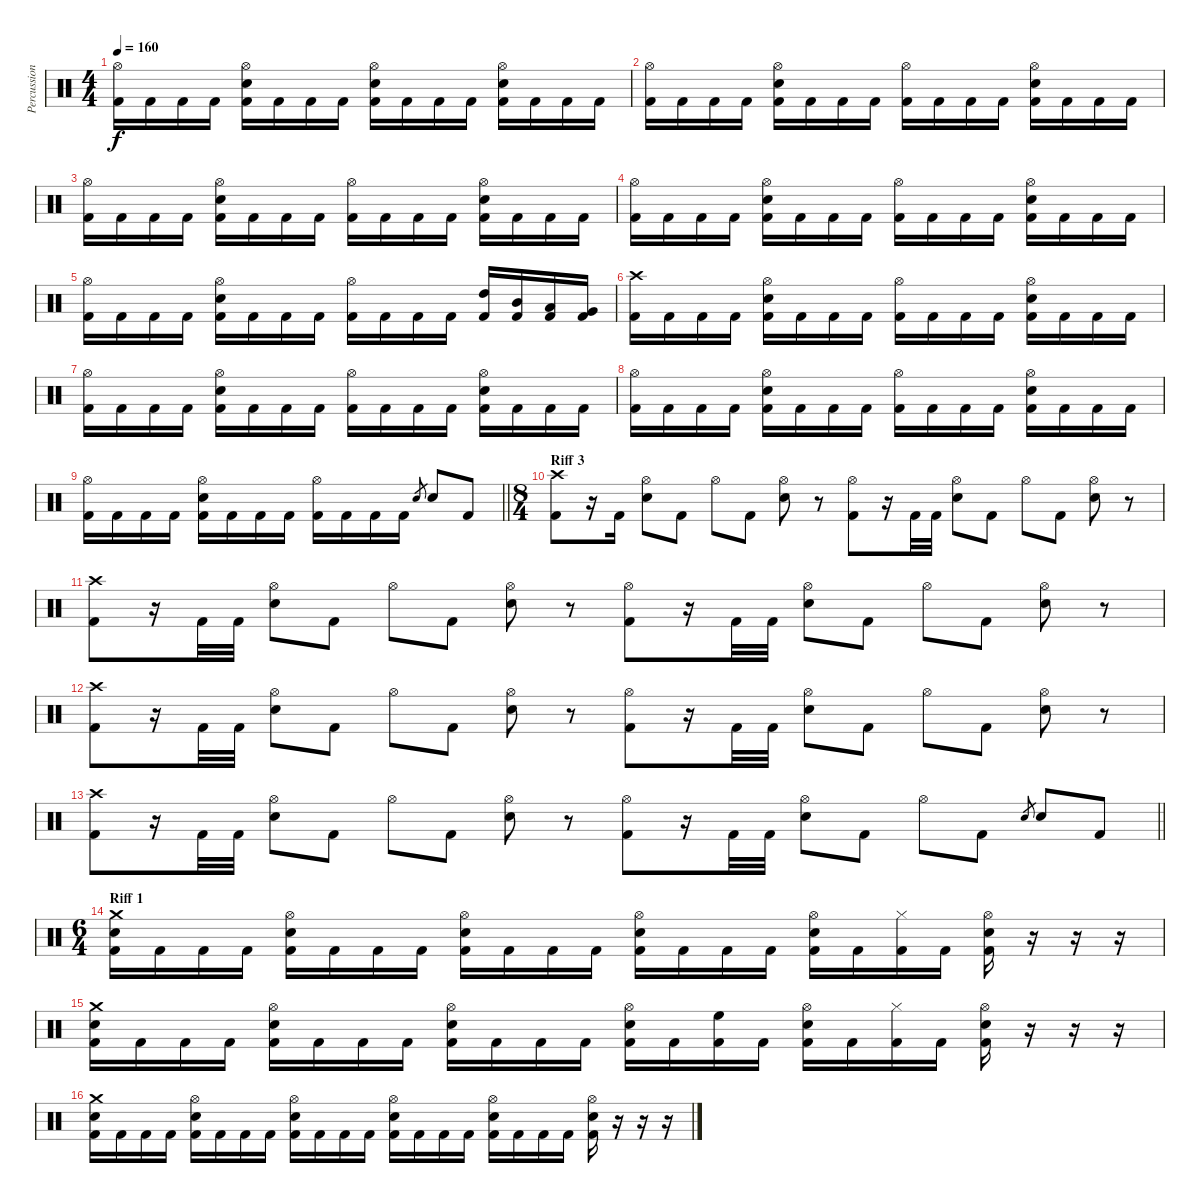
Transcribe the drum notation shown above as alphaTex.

\track ("Percussion" "Percussion") {instrument percussion}
\staff {score}
\articulation defaults
\ts (4 4)
\tempo 160
\clef neutral
\ks c
("Hi-Hat (open)" "Kick (hit) 2").16{dy f} "Kick (hit) 2".16 "Kick (hit) 2".16 "Kick (hit) 2".16 ("Hi-Hat (open)" "Snare (hit) 2" "Kick (hit) 2").16 "Kick (hit) 2".16 "Kick (hit) 2".16 "Kick (hit) 2".16 ("Hi-Hat (open)" "Snare (hit) 2" "Kick (hit) 2").16 "Kick (hit) 2".16 "Kick (hit) 2".16 "Kick (hit) 2".16 ("Hi-Hat (open)" "Snare (hit) 2" "Kick (hit) 2").16 "Kick (hit) 2".16 "Kick (hit) 2".16 "Kick (hit) 2".16 |
("Hi-Hat (open)" "Kick (hit) 2").16 "Kick (hit) 2".16 "Kick (hit) 2".16 "Kick (hit) 2".16 ("Hi-Hat (open)" "Snare (hit) 2" "Kick (hit) 2").16 "Kick (hit) 2".16 "Kick (hit) 2".16 "Kick (hit) 2".16 ("Hi-Hat (open)" "Kick (hit) 2").16 "Kick (hit) 2".16 "Kick (hit) 2".16 "Kick (hit) 2".16 ("Hi-Hat (open)" "Snare (hit) 2" "Kick (hit) 2").16 "Kick (hit) 2".16 "Kick (hit) 2".16 "Kick (hit) 2".16 |
("Hi-Hat (open)" "Kick (hit) 2").16 "Kick (hit) 2".16 "Kick (hit) 2".16 "Kick (hit) 2".16 ("Hi-Hat (open)" "Snare (hit) 2" "Kick (hit) 2").16 "Kick (hit) 2".16 "Kick (hit) 2".16 "Kick (hit) 2".16 ("Hi-Hat (open)" "Kick (hit) 2").16 "Kick (hit) 2".16 "Kick (hit) 2".16 "Kick (hit) 2".16 ("Hi-Hat (open)" "Snare (hit) 2" "Kick (hit) 2").16 "Kick (hit) 2".16 "Kick (hit) 2".16 "Kick (hit) 2".16 |
("Hi-Hat (open)" "Kick (hit) 2").16 "Kick (hit) 2".16 "Kick (hit) 2".16 "Kick (hit) 2".16 ("Hi-Hat (open)" "Snare (hit) 2" "Kick (hit) 2").16 "Kick (hit) 2".16 "Kick (hit) 2".16 "Kick (hit) 2".16 ("Hi-Hat (open)" "Kick (hit) 2").16 "Kick (hit) 2".16 "Kick (hit) 2".16 "Kick (hit) 2".16 ("Hi-Hat (open)" "Snare (hit) 2" "Kick (hit) 2").16 "Kick (hit) 2".16 "Kick (hit) 2".16 "Kick (hit) 2".16 |
("Hi-Hat (open)" "Kick (hit) 2").16 "Kick (hit) 2".16 "Kick (hit) 2".16 "Kick (hit) 2".16 ("Hi-Hat (open)" "Snare (hit) 2" "Kick (hit) 2").16 "Kick (hit) 2".16 "Kick (hit) 2".16 "Kick (hit) 2".16 ("Hi-Hat (open)" "Kick (hit) 2").16 "Kick (hit) 2".16 "Kick (hit) 2".16 "Kick (hit) 2".16 ("High Tom (hit)" "Kick (hit) 2").16 ("Mid Tom (hit)" "Kick (hit) 2").16 ("Low Tom (hit)" "Kick (hit) 2").16 ("Very Low Tom (hit)" "Kick (hit) 2").16 |
("Crash high (hit)" "Kick (hit) 2").16 "Kick (hit) 2".16 "Kick (hit) 2".16 "Kick (hit) 2".16 ("Hi-Hat (open)" "Snare (hit) 2" "Kick (hit) 2").16 "Kick (hit) 2".16 "Kick (hit) 2".16 "Kick (hit) 2".16 ("Hi-Hat (open)" "Kick (hit) 2").16 "Kick (hit) 2".16 "Kick (hit) 2".16 "Kick (hit) 2".16 ("Hi-Hat (open)" "Snare (hit) 2" "Kick (hit) 2").16 "Kick (hit) 2".16 "Kick (hit) 2".16 "Kick (hit) 2".16 |
("Hi-Hat (open)" "Kick (hit) 2").16 "Kick (hit) 2".16 "Kick (hit) 2".16 "Kick (hit) 2".16 ("Hi-Hat (open)" "Snare (hit) 2" "Kick (hit) 2").16 "Kick (hit) 2".16 "Kick (hit) 2".16 "Kick (hit) 2".16 ("Hi-Hat (open)" "Kick (hit) 2").16 "Kick (hit) 2".16 "Kick (hit) 2".16 "Kick (hit) 2".16 ("Hi-Hat (open)" "Snare (hit) 2" "Kick (hit) 2").16 "Kick (hit) 2".16 "Kick (hit) 2".16 "Kick (hit) 2".16 |
("Hi-Hat (open)" "Kick (hit) 2").16 "Kick (hit) 2".16 "Kick (hit) 2".16 "Kick (hit) 2".16 ("Hi-Hat (open)" "Snare (hit) 2" "Kick (hit) 2").16 "Kick (hit) 2".16 "Kick (hit) 2".16 "Kick (hit) 2".16 ("Hi-Hat (open)" "Kick (hit) 2").16 "Kick (hit) 2".16 "Kick (hit) 2".16 "Kick (hit) 2".16 ("Hi-Hat (open)" "Snare (hit) 2" "Kick (hit) 2").16 "Kick (hit) 2".16 "Kick (hit) 2".16 "Kick (hit) 2".16 |
\barLineRight lightlight
("Hi-Hat (open)" "Kick (hit) 2").16 "Kick (hit) 2".16 "Kick (hit) 2".16 "Kick (hit) 2".16 ("Hi-Hat (open)" "Snare (hit) 2" "Kick (hit) 2").16 "Kick (hit) 2".16 "Kick (hit) 2".16 "Kick (hit) 2".16 ("Hi-Hat (open)" "Kick (hit) 2").16 "Kick (hit) 2".16 "Kick (hit) 2".16 "Kick (hit) 2".16 "Snare (hit) 2".8{gr} "Snare (hit) 2".8 "Kick (hit) 2".8 |
\ts (8 4)
\section ("" "Riff 3")
("Kick (hit) 2" "Crash high (hit)").8 r.16 "Kick (hit) 2".16 ("Snare (hit) 2" "Hi-Hat (open)").8 "Kick (hit) 2".8 "Hi-Hat (open)".8 "Kick (hit) 2".8 ("Snare (hit) 2" "Hi-Hat (open)").8 r.8 ("Kick (hit) 2" "Hi-Hat (open)").8 r.16 "Kick (hit) 2".32 "Kick (hit) 2".32 ("Snare (hit) 2" "Hi-Hat (open)").8 "Kick (hit) 2".8 "Hi-Hat (open)".8 "Kick (hit) 2".8 ("Hi-Hat (open)" "Snare (hit) 2").8 r.8 |
("Kick (hit) 2" "Crash high (hit)").8 r.16 "Kick (hit) 2".32 "Kick (hit) 2".32 ("Snare (hit) 2" "Hi-Hat (open)").8 "Kick (hit) 2".8 "Hi-Hat (open)".8 "Kick (hit) 2".8 ("Snare (hit) 2" "Hi-Hat (open)").8 r.8 ("Kick (hit) 2" "Hi-Hat (open)").8 r.16 "Kick (hit) 2".32 "Kick (hit) 2".32 ("Snare (hit) 2" "Hi-Hat (open)").8 "Kick (hit) 2".8 "Hi-Hat (open)".8 "Kick (hit) 2".8 ("Hi-Hat (open)" "Snare (hit) 2").8 r.8 |
("Kick (hit) 2" "Crash high (hit)").8 r.16 "Kick (hit) 2".32 "Kick (hit) 2".32 ("Snare (hit) 2" "Hi-Hat (open)").8 "Kick (hit) 2".8 "Hi-Hat (open)".8 "Kick (hit) 2".8 ("Snare (hit) 2" "Hi-Hat (open)").8 r.8 ("Kick (hit) 2" "Hi-Hat (open)").8 r.16 "Kick (hit) 2".32 "Kick (hit) 2".32 ("Snare (hit) 2" "Hi-Hat (open)").8 "Kick (hit) 2".8 "Hi-Hat (open)".8 "Kick (hit) 2".8 ("Hi-Hat (open)" "Snare (hit) 2").8 r.8 |
\barLineRight lightlight
("Kick (hit) 2" "Crash high (hit)").8 r.16 "Kick (hit) 2".32 "Kick (hit) 2".32 ("Snare (hit) 2" "Hi-Hat (open)").8 "Kick (hit) 2".8 "Hi-Hat (open)".8 "Kick (hit) 2".8 ("Snare (hit) 2" "Hi-Hat (open)").8 r.8 ("Kick (hit) 2" "Hi-Hat (open)").8 r.16 "Kick (hit) 2".32 "Kick (hit) 2".32 ("Snare (hit) 2" "Hi-Hat (open)").8 "Kick (hit) 2".8 "Hi-Hat (open)".8 "Kick (hit) 2".8 "Snare (hit) 2".8{gr} "Snare (hit) 2".8 "Kick (hit) 2".8 |
\ts (6 4)
\section ("" "Riff 1")
("Snare (hit) 2" "Kick (hit) 2" "Crash medium (hit)").16 "Kick (hit) 2".16 "Kick (hit) 2".16 "Kick (hit) 2".16 ("Hi-Hat (open)" "Snare (hit) 2" "Kick (hit) 2").16 "Kick (hit) 2".16 "Kick (hit) 2".16 "Kick (hit) 2".16 ("Hi-Hat (open)" "Snare (hit) 2" "Kick (hit) 2").16 "Kick (hit) 2".16 "Kick (hit) 2".16 "Kick (hit) 2".16 ("Hi-Hat (open)" "Snare (hit) 2" "Kick (hit) 2").16 "Kick (hit) 2".16 "Kick (hit) 2".16 "Kick (hit) 2".16 ("Hi-Hat (open)" "Snare (hit) 2" "Kick (hit) 2").16 "Kick (hit) 2".16 ("Hi-Hat (closed)" "Kick (hit) 2").16 "Kick (hit) 2".16 ("Snare (hit) 2" "Hi-Hat (open)" "Kick (hit) 2").16 r.16 r.16 r.16 |
("Snare (hit) 2" "Kick (hit) 2" "Crash medium (hit)").16 "Kick (hit) 2".16 "Kick (hit) 2".16 "Kick (hit) 2".16 ("Hi-Hat (open)" "Snare (hit) 2" "Kick (hit) 2").16 "Kick (hit) 2".16 "Kick (hit) 2".16 "Kick (hit) 2".16 ("Hi-Hat (open)" "Snare (hit) 2" "Kick (hit) 2").16 "Kick (hit) 2".16 "Kick (hit) 2".16 "Kick (hit) 2".16 ("Hi-Hat (open)" "Snare (hit) 2" "Kick (hit) 2").16 "Kick (hit) 2".16 ("High Floor Tom (hit)" "Kick (hit) 2").16 "Kick (hit) 2".16 ("Hi-Hat (open)" "Snare (hit) 2" "Kick (hit) 2").16 "Kick (hit) 2".16 ("Hi-Hat (closed)" "Kick (hit) 2").16 "Kick (hit) 2".16 ("Snare (hit) 2" "Hi-Hat (open)" "Kick (hit) 2").16 r.16 r.16 r.16 |
("Snare (hit) 2" "Kick (hit) 2" "Crash medium (hit)").16 "Kick (hit) 2".16 "Kick (hit) 2".16 "Kick (hit) 2".16 ("Hi-Hat (open)" "Snare (hit) 2" "Kick (hit) 2").16 "Kick (hit) 2".16 "Kick (hit) 2".16 "Kick (hit) 2".16 ("Hi-Hat (open)" "Snare (hit) 2" "Kick (hit) 2").16 "Kick (hit) 2".16 "Kick (hit) 2".16 "Kick (hit) 2".16 ("Hi-Hat (open)" "Snare (hit) 2" "Kick (hit) 2").16 "Kick (hit) 2".16 "Kick (hit) 2".16 "Kick (hit) 2".16 ("Hi-Hat (open)" "Snare (hit) 2" "Kick (hit) 2").16 "Kick (hit) 2".16 "Kick (hit) 2".16 "Kick (hit) 2".16 ("Snare (hit) 2" "Hi-Hat (open)" "Kick (hit) 2").16 r.16 r.16 r.16
